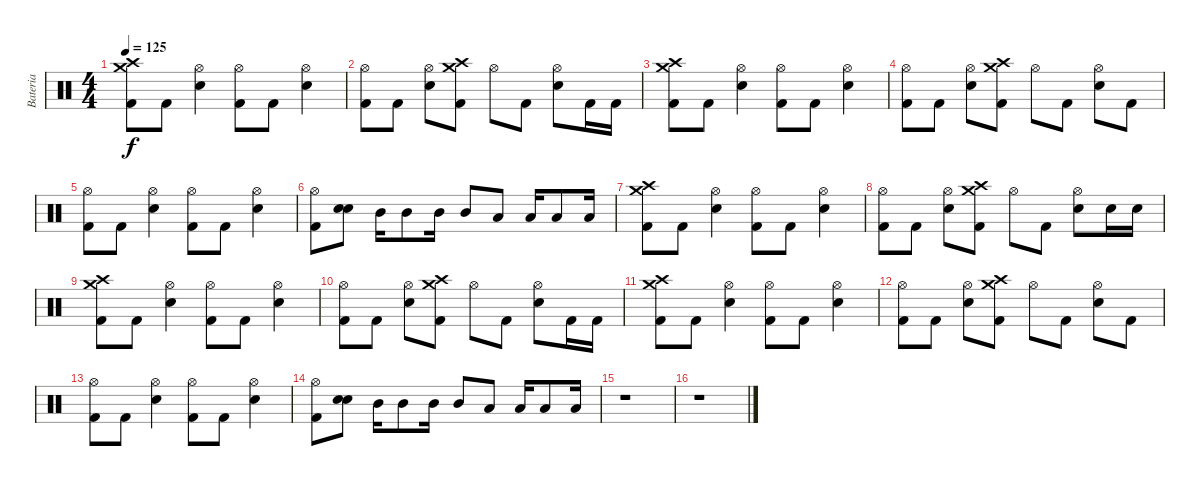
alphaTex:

\track ("Bateria" "Bateria") {instrument percussion}
\staff {score}
\articulation defaults
\ts (4 4)
\tempo 125
\clef neutral
\ks c
("Crash high (hit)" "Crash medium (hit)" "Kick (hit) 2").8{dy f} "Kick (hit) 2".8 ("Electric Snare (hit)" "Hi-Hat (open)").4 ("Kick (hit) 2" "Hi-Hat (open)").8 "Kick (hit) 2".8 ("Electric Snare (hit)" "Hi-Hat (open)").4 |
("Kick (hit) 2" "Hi-Hat (open)").8 "Kick (hit) 2".8 ("Electric Snare (hit)" "Hi-Hat (open)").8 ("Crash high (hit)" "Crash medium (hit)" "Kick (hit) 2").8 "Hi-Hat (open)".8 "Kick (hit) 2".8 ("Electric Snare (hit)" "Hi-Hat (open)").8 "Kick (hit) 2".16 "Kick (hit) 2".16 |
("Crash high (hit)" "Crash medium (hit)" "Kick (hit) 2").8 "Kick (hit) 2".8 ("Electric Snare (hit)" "Hi-Hat (open)").4 ("Kick (hit) 2" "Hi-Hat (open)").8 "Kick (hit) 2".8 ("Electric Snare (hit)" "Hi-Hat (open)").4 |
("Kick (hit) 2" "Hi-Hat (open)").8 "Kick (hit) 2".8 ("Electric Snare (hit)" "Hi-Hat (open)").8 ("Crash high (hit)" "Crash medium (hit)" "Kick (hit) 2").8 "Hi-Hat (open)".8 "Kick (hit) 2".8 ("Electric Snare (hit)" "Hi-Hat (open)").8 "Kick (hit) 2".8 |
("Kick (hit) 2" "Hi-Hat (open)").8 "Kick (hit) 2".8 ("Electric Snare (hit)" "Hi-Hat (open)").4 ("Kick (hit) 2" "Hi-Hat (open)").8 "Kick (hit) 2".8 ("Electric Snare (hit)" "Hi-Hat (open)").4 |
("Kick (hit) 2" "Hi-Hat (open)").8 ("Snare (hit) 2" "Electric Snare (hit)").8 "Mid Tom (hit)".16 "Mid Tom (hit)".8 "Mid Tom (hit)".16 "Mid Tom (hit)".8 "Low Tom (hit)".8 "Low Tom (hit)".16 "Low Tom (hit)".8 "Low Tom (hit)".16 |
("Crash high (hit)" "Crash medium (hit)" "Kick (hit) 2").8 "Kick (hit) 2".8 ("Electric Snare (hit)" "Hi-Hat (open)").4 ("Kick (hit) 2" "Hi-Hat (open)").8 "Kick (hit) 2".8 ("Electric Snare (hit)" "Hi-Hat (open)").4 |
("Kick (hit) 2" "Hi-Hat (open)").8 "Kick (hit) 2".8 ("Electric Snare (hit)" "Hi-Hat (open)").8 ("Crash high (hit)" "Crash medium (hit)" "Kick (hit) 2").8 "Hi-Hat (open)".8 "Kick (hit) 2".8 ("Electric Snare (hit)" "Hi-Hat (open)").8 "Electric Snare (hit)".16 "Electric Snare (hit)".16 |
("Crash high (hit)" "Crash medium (hit)" "Kick (hit) 2").8 "Kick (hit) 2".8 ("Electric Snare (hit)" "Hi-Hat (open)").4 ("Kick (hit) 2" "Hi-Hat (open)").8 "Kick (hit) 2".8 ("Electric Snare (hit)" "Hi-Hat (open)").4 |
("Kick (hit) 2" "Hi-Hat (open)").8 "Kick (hit) 2".8 ("Electric Snare (hit)" "Hi-Hat (open)").8 ("Crash high (hit)" "Crash medium (hit)" "Kick (hit) 2").8 "Hi-Hat (open)".8 "Kick (hit) 2".8 ("Electric Snare (hit)" "Hi-Hat (open)").8 "Kick (hit) 2".16 "Kick (hit) 2".16 |
("Crash high (hit)" "Crash medium (hit)" "Kick (hit) 2").8 "Kick (hit) 2".8 ("Electric Snare (hit)" "Hi-Hat (open)").4 ("Kick (hit) 2" "Hi-Hat (open)").8 "Kick (hit) 2".8 ("Electric Snare (hit)" "Hi-Hat (open)").4 |
("Kick (hit) 2" "Hi-Hat (open)").8 "Kick (hit) 2".8 ("Electric Snare (hit)" "Hi-Hat (open)").8 ("Crash high (hit)" "Crash medium (hit)" "Kick (hit) 2").8 "Hi-Hat (open)".8 "Kick (hit) 2".8 ("Electric Snare (hit)" "Hi-Hat (open)").8 "Kick (hit) 2".8 |
("Kick (hit) 2" "Hi-Hat (open)").8 "Kick (hit) 2".8 ("Electric Snare (hit)" "Hi-Hat (open)").4 ("Kick (hit) 2" "Hi-Hat (open)").8 "Kick (hit) 2".8 ("Electric Snare (hit)" "Hi-Hat (open)").4 |
("Kick (hit) 2" "Hi-Hat (open)").8 ("Snare (hit) 2" "Electric Snare (hit)").8 "Mid Tom (hit)".16 "Mid Tom (hit)".8 "Mid Tom (hit)".16 "Mid Tom (hit)".8 "Low Tom (hit)".8 "Low Tom (hit)".16 "Low Tom (hit)".8 "Low Tom (hit)".16 |
r.1 |
r.1
